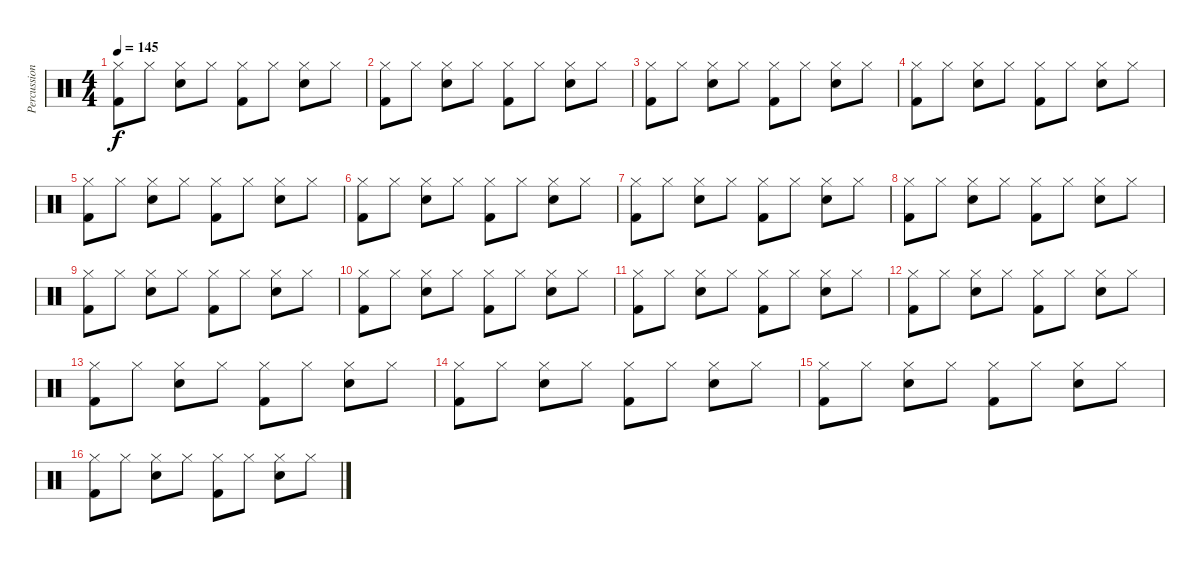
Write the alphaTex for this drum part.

\track ("Percussion" "Percussion") {instrument percussion}
\staff {score}
\articulation defaults
\ts (4 4)
\tempo 145
\clef neutral
\ks c
("Hi-Hat (closed)" "Kick (hit) 2").8{dy f} "Hi-Hat (closed)".8 ("Hi-Hat (closed)" "Snare (hit) 2").8 "Hi-Hat (closed)".8 ("Hi-Hat (closed)" "Kick (hit) 2").8 "Hi-Hat (closed)".8 ("Hi-Hat (closed)" "Snare (hit) 2").8 "Hi-Hat (closed)".8 |
("Hi-Hat (closed)" "Kick (hit) 2").8 "Hi-Hat (closed)".8 ("Hi-Hat (closed)" "Snare (hit) 2").8 "Hi-Hat (closed)".8 ("Hi-Hat (closed)" "Kick (hit) 2").8 "Hi-Hat (closed)".8 ("Hi-Hat (closed)" "Snare (hit) 2").8 "Hi-Hat (closed)".8 |
("Hi-Hat (closed)" "Kick (hit) 2").8 "Hi-Hat (closed)".8 ("Hi-Hat (closed)" "Snare (hit) 2").8 "Hi-Hat (closed)".8 ("Hi-Hat (closed)" "Kick (hit) 2").8 "Hi-Hat (closed)".8 ("Hi-Hat (closed)" "Snare (hit) 2").8 "Hi-Hat (closed)".8 |
("Hi-Hat (closed)" "Kick (hit) 2").8 "Hi-Hat (closed)".8 ("Hi-Hat (closed)" "Snare (hit) 2").8 "Hi-Hat (closed)".8 ("Hi-Hat (closed)" "Kick (hit) 2").8 "Hi-Hat (closed)".8 ("Hi-Hat (closed)" "Snare (hit) 2").8 "Hi-Hat (closed)".8 |
("Hi-Hat (closed)" "Kick (hit) 2").8 "Hi-Hat (closed)".8 ("Hi-Hat (closed)" "Snare (hit) 2").8 "Hi-Hat (closed)".8 ("Hi-Hat (closed)" "Kick (hit) 2").8 "Hi-Hat (closed)".8 ("Hi-Hat (closed)" "Snare (hit) 2").8 "Hi-Hat (closed)".8 |
("Hi-Hat (closed)" "Kick (hit) 2").8 "Hi-Hat (closed)".8 ("Hi-Hat (closed)" "Snare (hit) 2").8 "Hi-Hat (closed)".8 ("Hi-Hat (closed)" "Kick (hit) 2").8 "Hi-Hat (closed)".8 ("Hi-Hat (closed)" "Snare (hit) 2").8 "Hi-Hat (closed)".8 |
("Hi-Hat (closed)" "Kick (hit) 2").8 "Hi-Hat (closed)".8 ("Hi-Hat (closed)" "Snare (hit) 2").8 "Hi-Hat (closed)".8 ("Hi-Hat (closed)" "Kick (hit) 2").8 "Hi-Hat (closed)".8 ("Hi-Hat (closed)" "Snare (hit) 2").8 "Hi-Hat (closed)".8 |
("Hi-Hat (closed)" "Kick (hit) 2").8 "Hi-Hat (closed)".8 ("Hi-Hat (closed)" "Snare (hit) 2").8 "Hi-Hat (closed)".8 ("Hi-Hat (closed)" "Kick (hit) 2").8 "Hi-Hat (closed)".8 ("Hi-Hat (closed)" "Snare (hit) 2").8 "Hi-Hat (closed)".8 |
("Hi-Hat (closed)" "Kick (hit) 2").8 "Hi-Hat (closed)".8 ("Hi-Hat (closed)" "Snare (hit) 2").8 "Hi-Hat (closed)".8 ("Hi-Hat (closed)" "Kick (hit) 2").8 "Hi-Hat (closed)".8 ("Hi-Hat (closed)" "Snare (hit) 2").8 "Hi-Hat (closed)".8 |
("Hi-Hat (closed)" "Kick (hit) 2").8 "Hi-Hat (closed)".8 ("Hi-Hat (closed)" "Snare (hit) 2").8 "Hi-Hat (closed)".8 ("Hi-Hat (closed)" "Kick (hit) 2").8 "Hi-Hat (closed)".8 ("Hi-Hat (closed)" "Snare (hit) 2").8 "Hi-Hat (closed)".8 |
("Hi-Hat (closed)" "Kick (hit) 2").8 "Hi-Hat (closed)".8 ("Hi-Hat (closed)" "Snare (hit) 2").8 "Hi-Hat (closed)".8 ("Hi-Hat (closed)" "Kick (hit) 2").8 "Hi-Hat (closed)".8 ("Hi-Hat (closed)" "Snare (hit) 2").8 "Hi-Hat (closed)".8 |
("Hi-Hat (closed)" "Kick (hit) 2").8 "Hi-Hat (closed)".8 ("Hi-Hat (closed)" "Snare (hit) 2").8 "Hi-Hat (closed)".8 ("Hi-Hat (closed)" "Kick (hit) 2").8 "Hi-Hat (closed)".8 ("Hi-Hat (closed)" "Snare (hit) 2").8 "Hi-Hat (closed)".8 |
("Hi-Hat (closed)" "Kick (hit) 2").8 "Hi-Hat (closed)".8 ("Hi-Hat (closed)" "Snare (hit) 2").8 "Hi-Hat (closed)".8 ("Hi-Hat (closed)" "Kick (hit) 2").8 "Hi-Hat (closed)".8 ("Hi-Hat (closed)" "Snare (hit) 2").8 "Hi-Hat (closed)".8 |
("Hi-Hat (closed)" "Kick (hit) 2").8 "Hi-Hat (closed)".8 ("Hi-Hat (closed)" "Snare (hit) 2").8 "Hi-Hat (closed)".8 ("Hi-Hat (closed)" "Kick (hit) 2").8 "Hi-Hat (closed)".8 ("Hi-Hat (closed)" "Snare (hit) 2").8 "Hi-Hat (closed)".8 |
("Hi-Hat (closed)" "Kick (hit) 2").8 "Hi-Hat (closed)".8 ("Hi-Hat (closed)" "Snare (hit) 2").8 "Hi-Hat (closed)".8 ("Hi-Hat (closed)" "Kick (hit) 2").8 "Hi-Hat (closed)".8 ("Hi-Hat (closed)" "Snare (hit) 2").8 "Hi-Hat (closed)".8 |
("Hi-Hat (closed)" "Kick (hit) 2").8 "Hi-Hat (closed)".8 ("Hi-Hat (closed)" "Snare (hit) 2").8 "Hi-Hat (closed)".8 ("Hi-Hat (closed)" "Kick (hit) 2").8 "Hi-Hat (closed)".8 ("Hi-Hat (closed)" "Snare (hit) 2").8 "Hi-Hat (closed)".8
